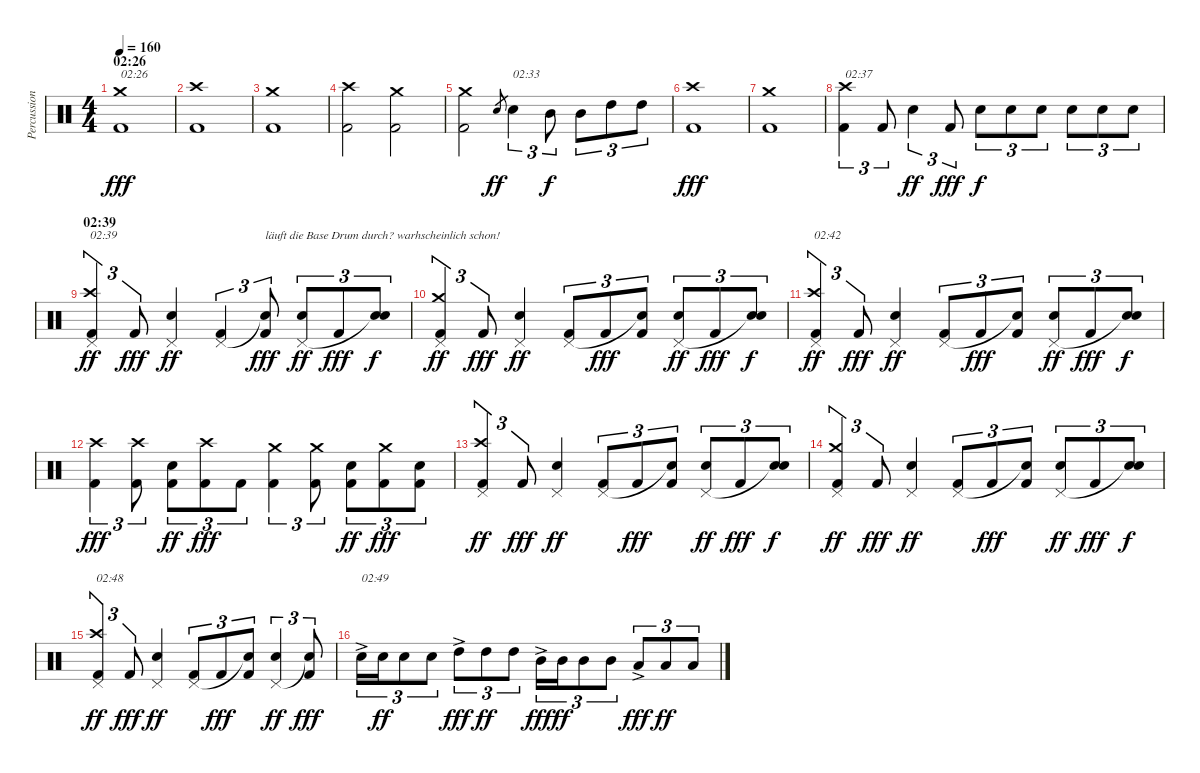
\track ("Percussion" "Percussion") {instrument percussion}
\staff {score}
\articulation defaults
\ts (4 4)
\section ("" "02:26 ")
\tempo 160
\clef neutral
\ks c
("Kick (hit) 2" "Crash medium (hit)").1{txt "02:26 " dy fff} |
("Kick (hit) 2" "Crash high (hit)").1 |
("Kick (hit) 2" "Crash medium (hit)").1 |
("Kick (hit) 2" "Crash high (hit)").2 ("Kick (hit) 2" "Crash medium (hit)").2 |
("Kick (hit) 2" "Crash medium (hit)").2 "Electric Snare (hit)".8{gr dy ff} "Electric Snare (hit)".4{tu (3 2) txt "02:33"} "Mid Tom (hit)".8{tu (3 2) dy f} "Mid Tom (hit)".8{tu (3 2)} "High Tom (hit)".8{tu (3 2)} "High Tom (hit)".8{tu (3 2)} |
("Kick (hit) 2" "Crash high (hit)").1{dy fff} |
("Kick (hit) 2" "Crash medium (hit)").1 |
("Kick (hit) 2" "Crash high (hit)").4{tu (3 2) txt "02:37"} "Kick (hit) 2".8{tu (3 2)} "Electric Snare (hit)".4{tu (3 2) dy ff} "Kick (hit) 2".8{tu (3 2) dy fff} "Electric Snare (hit)".8{tu (3 2) dy f} "Electric Snare (hit)".8{tu (3 2)} "Electric Snare (hit)".8{tu (3 2)} "Electric Snare (hit)".8{tu (3 2)} "Electric Snare (hit)".8{tu (3 2)} "Electric Snare (hit)".8{tu (3 2)} |
\section ("" "02:39")
("Kick (hit) 2" "Pedal Hi-Hat (hit)" "Crash high (hit)").4{tu (3 2) txt "02:39" dy ff} "Kick (hit) 2".8{tu (3 2) dy fff} ("Electric Snare (hit)" "Pedal Hi-Hat (hit)").4{dy ff} ("Kick (hit) 2" "Pedal Hi-Hat (hit)").4{tu (3 2)} ("Kick (hit) 2" "Snare (hit)"{t}).8{tu (3 2) txt "läuft die Base Drum durch? warhscheinlich schon!" dy fff} ("Electric Snare (hit)" "Pedal Hi-Hat (hit)").8{tu (3 2) dy ff} "Kick (hit) 2".8{tu (3 2) dy fff} ("Electric Snare (hit)" "Snare (hit)"{t}).8{tu (3 2) dy f} |
("Kick (hit) 2" "Pedal Hi-Hat (hit)" "Crash medium (hit)").4{tu (3 2) dy ff} "Kick (hit) 2".8{tu (3 2) dy fff} ("Electric Snare (hit)" "Pedal Hi-Hat (hit)").4{dy ff} ("Kick (hit) 2" "Pedal Hi-Hat (hit)").8{tu (3 2)} "Kick (hit) 2".8{tu (3 2) dy fff} ("Kick (hit) 2" "Snare (hit)"{t}).8{tu (3 2)} ("Electric Snare (hit)" "Pedal Hi-Hat (hit)").8{tu (3 2) dy ff} "Kick (hit) 2".8{tu (3 2) dy fff} ("Electric Snare (hit)" "Snare (hit)"{t}).8{tu (3 2) dy f} |
("Kick (hit) 2" "Pedal Hi-Hat (hit)" "Crash high (hit)").4{tu (3 2) txt "02:42" dy ff} "Kick (hit) 2".8{tu (3 2) dy fff} ("Electric Snare (hit)" "Pedal Hi-Hat (hit)").4{dy ff} ("Kick (hit) 2" "Pedal Hi-Hat (hit)").8{tu (3 2)} "Kick (hit) 2".8{tu (3 2) dy fff} ("Kick (hit) 2" "Snare (hit)"{t}).8{tu (3 2)} ("Electric Snare (hit)" "Pedal Hi-Hat (hit)").8{tu (3 2) dy ff} "Kick (hit) 2".8{tu (3 2) dy fff} ("Electric Snare (hit)" "Snare (hit)"{t}).8{tu (3 2) dy f} |
("Kick (hit) 2" "Crash high (hit)").4{tu (3 2) dy fff} ("Kick (hit) 2" "Crash high (hit)").8{tu (3 2)} ("Kick (hit) 2" "Electric Snare (hit)").8{tu (3 2) dy ff} ("Kick (hit) 2" "Crash high (hit)").8{tu (3 2) dy fff} "Kick (hit) 2".8{tu (3 2)} ("Kick (hit) 2" "Crash medium (hit)").4{tu (3 2)} ("Kick (hit) 2" "Crash medium (hit)").8{tu (3 2)} ("Kick (hit) 2" "Electric Snare (hit)").8{tu (3 2) dy ff} ("Kick (hit) 2" "Crash medium (hit)").8{tu (3 2) dy fff} ("Kick (hit) 2" "Electric Snare (hit)").8{tu (3 2)} |
("Kick (hit) 2" "Pedal Hi-Hat (hit)" "Crash high (hit)").4{tu (3 2) dy ff} "Kick (hit) 2".8{tu (3 2) dy fff} ("Electric Snare (hit)" "Pedal Hi-Hat (hit)").4{dy ff} ("Kick (hit) 2" "Pedal Hi-Hat (hit)").8{tu (3 2)} "Kick (hit) 2".8{tu (3 2) dy fff} ("Kick (hit) 2" "Snare (hit)"{t}).8{tu (3 2)} ("Electric Snare (hit)" "Pedal Hi-Hat (hit)").8{tu (3 2) dy ff} "Kick (hit) 2".8{tu (3 2) dy fff} ("Electric Snare (hit)" "Snare (hit)"{t}).8{tu (3 2) dy f} |
("Kick (hit) 2" "Pedal Hi-Hat (hit)" "Crash medium (hit)").4{tu (3 2) dy ff} "Kick (hit) 2".8{tu (3 2) dy fff} ("Electric Snare (hit)" "Pedal Hi-Hat (hit)").4{dy ff} ("Kick (hit) 2" "Pedal Hi-Hat (hit)").8{tu (3 2)} "Kick (hit) 2".8{tu (3 2) dy fff} ("Kick (hit) 2" "Snare (hit)"{t}).8{tu (3 2)} ("Electric Snare (hit)" "Pedal Hi-Hat (hit)").8{tu (3 2) dy ff} "Kick (hit) 2".8{tu (3 2) dy fff} ("Electric Snare (hit)" "Snare (hit)"{t}).8{tu (3 2) dy f} |
("Kick (hit) 2" "Pedal Hi-Hat (hit)" "Crash high (hit)").4{tu (3 2) txt "02:48" dy ff} "Kick (hit) 2".8{tu (3 2) dy fff} ("Electric Snare (hit)" "Pedal Hi-Hat (hit)").4{dy ff} ("Kick (hit) 2" "Pedal Hi-Hat (hit)").8{tu (3 2)} "Kick (hit) 2".8{tu (3 2) dy fff} ("Kick (hit) 2" "Snare (hit)"{t}).8{tu (3 2)} ("Electric Snare (hit)" "Pedal Hi-Hat (hit)").4{tu (3 2) dy ff} ("Kick (hit) 2" "Snare (hit)"{t}).8{tu (3 2) dy fff} |
"Electric Snare (hit)"{ac}.16{tu (3 2) txt "02:49"} "Electric Snare (hit)".16{tu (3 2) dy ff} "Electric Snare (hit)".8{tu (3 2)} "Electric Snare (hit)".8{tu (3 2)} "High Tom (hit)"{ac}.8{tu (3 2) dy fff} "High Tom (hit)".8{tu (3 2) dy ff} "High Tom (hit)".8{tu (3 2)} "Mid Tom (hit)"{ac}.16{tu (3 2) dy fff} "Mid Tom (hit)".16{tu (3 2) dy ff} "Mid Tom (hit)".8{tu (3 2)} "Mid Tom (hit)".8{tu (3 2)} "Low Tom (hit)"{ac}.8{tu (3 2) dy fff} "Low Tom (hit)".8{tu (3 2) dy ff} "Low Tom (hit)".8{tu (3 2)}
